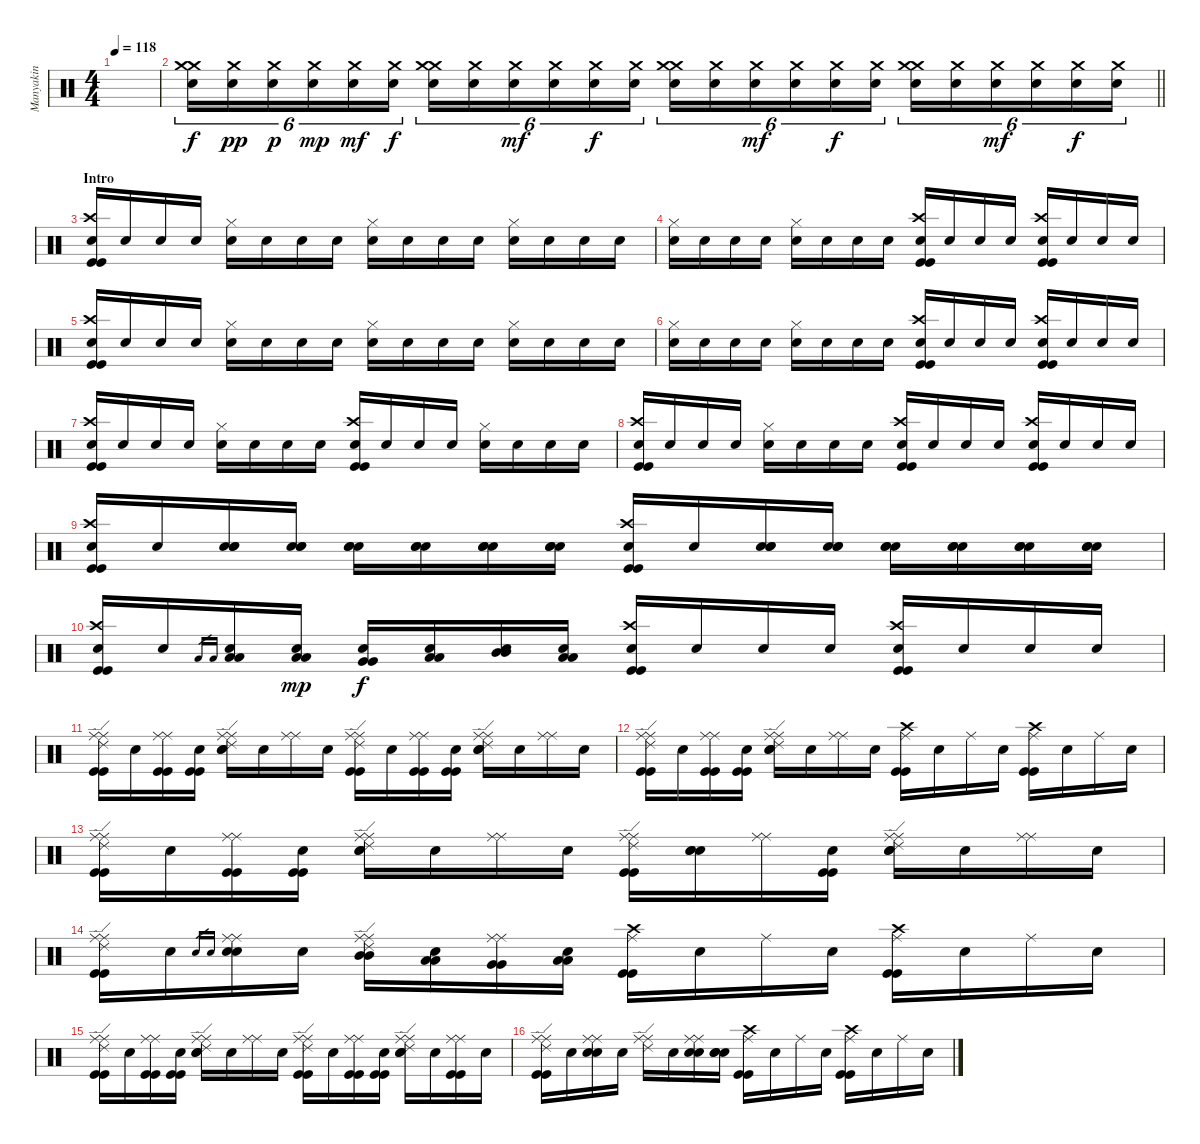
\track ("Manyakin" "Manyakin") {instrument percussion}
\staff {score}
\articulation defaults
\ts (4 4)
\tempo 118
\clef neutral
\ks c
|
\barLineRight lightlight
("Crash medium (hit)" "Crash medium (hit)" "Snare (hit)"{x}).16{tu (6 4)} ("Crash medium (hit)" "Snare (hit)"{x}).16{tu (6 4) dy pp} ("Crash medium (hit)" "Snare (hit)"{x}).16{tu (6 4) dy p} ("Crash medium (hit)" "Snare (hit)"{x}).16{tu (6 4) dy mp} ("Crash medium (hit)" "Snare (hit)"{x}).16{tu (6 4) dy mf} ("Crash medium (hit)" "Snare (hit)"{x}).16{tu (6 4) dy f} ("Crash medium (hit)" "Crash medium (hit)" "Snare (hit)"{x}).16{tu (6 4)} ("Crash medium (hit)" "Snare (hit)"{x}).16{tu (6 4)} ("Crash medium (hit)" "Snare (hit)"{x}).16{tu (6 4) dy mf} ("Crash medium (hit)" "Snare (hit)"{x}).16{tu (6 4)} ("Crash medium (hit)" "Snare (hit)"{x}).16{tu (6 4) dy f} ("Crash medium (hit)" "Snare (hit)"{x}).16{tu (6 4)} ("Crash medium (hit)" "Crash medium (hit)" "Snare (hit)"{x}).16{tu (6 4)} ("Crash medium (hit)" "Snare (hit)"{x}).16{tu (6 4)} ("Crash medium (hit)" "Snare (hit)"{x}).16{tu (6 4) dy mf} ("Crash medium (hit)" "Snare (hit)"{x}).16{tu (6 4)} ("Crash medium (hit)" "Snare (hit)"{x}).16{tu (6 4) dy f} ("Crash medium (hit)" "Snare (hit)"{x}).16{tu (6 4)} ("Crash medium (hit)" "Crash medium (hit)" "Snare (hit)"{x}).16{tu (6 4)} ("Crash medium (hit)" "Snare (hit)"{x}).16{tu (6 4)} ("Crash medium (hit)" "Snare (hit)"{x}).16{tu (6 4) dy mf} ("Crash medium (hit)" "Snare (hit)"{x}).16{tu (6 4)} ("Crash medium (hit)" "Snare (hit)"{x}).16{tu (6 4) dy f} ("Crash medium (hit)" "Snare (hit)"{x}).16{tu (6 4)} |
\section ("" "Intro")
("Crash high (hit)" "Kick (hit)" "Kick (hit)" "Snare (hit)"{x}).16 "Snare (hit)"{x}.16 "Snare (hit)"{x}.16 "Snare (hit)"{x}.16 ("Hi-Hat (closed)" "Snare (hit)"{x}).16 "Snare (hit)"{x}.16 "Snare (hit)"{x}.16 "Snare (hit)"{x}.16 ("Hi-Hat (closed)" "Snare (hit)"{x}).16 "Snare (hit)"{x}.16 "Snare (hit)"{x}.16 "Snare (hit)"{x}.16 ("Hi-Hat (closed)" "Snare (hit)"{x}).16 "Snare (hit)"{x}.16 "Snare (hit)"{x}.16 "Snare (hit)"{x}.16 |
("Hi-Hat (closed)" "Snare (hit)"{x}).16 "Snare (hit)"{x}.16 "Snare (hit)"{x}.16 "Snare (hit)"{x}.16 ("Hi-Hat (closed)" "Snare (hit)"{x}).16 "Snare (hit)"{x}.16 "Snare (hit)"{x}.16 "Snare (hit)"{x}.16 ("Crash high (hit)" "Kick (hit)" "Kick (hit)" "Snare (hit)"{x}).16 "Snare (hit)"{x}.16 "Snare (hit)"{x}.16 "Snare (hit)"{x}.16 ("Crash high (hit)" "Kick (hit)" "Kick (hit)" "Snare (hit)"{x}).16 "Snare (hit)"{x}.16 "Snare (hit)"{x}.16 "Snare (hit)"{x}.16 |
("Crash high (hit)" "Kick (hit)" "Kick (hit)" "Snare (hit)"{x}).16 "Snare (hit)"{x}.16 "Snare (hit)"{x}.16 "Snare (hit)"{x}.16 ("Hi-Hat (closed)" "Snare (hit)"{x}).16 "Snare (hit)"{x}.16 "Snare (hit)"{x}.16 "Snare (hit)"{x}.16 ("Hi-Hat (closed)" "Snare (hit)"{x}).16 "Snare (hit)"{x}.16 "Snare (hit)"{x}.16 "Snare (hit)"{x}.16 ("Hi-Hat (closed)" "Snare (hit)"{x}).16 "Snare (hit)"{x}.16 "Snare (hit)"{x}.16 "Snare (hit)"{x}.16 |
("Hi-Hat (closed)" "Snare (hit)"{x}).16 "Snare (hit)"{x}.16 "Snare (hit)"{x}.16 "Snare (hit)"{x}.16 ("Hi-Hat (closed)" "Snare (hit)"{x}).16 "Snare (hit)"{x}.16 "Snare (hit)"{x}.16 "Snare (hit)"{x}.16 ("Crash high (hit)" "Kick (hit)" "Kick (hit)" "Snare (hit)"{x}).16 "Snare (hit)"{x}.16 "Snare (hit)"{x}.16 "Snare (hit)"{x}.16 ("Crash high (hit)" "Kick (hit)" "Kick (hit)" "Snare (hit)"{x}).16 "Snare (hit)"{x}.16 "Snare (hit)"{x}.16 "Snare (hit)"{x}.16 |
("Crash high (hit)" "Kick (hit)" "Kick (hit)" "Snare (hit)"{x}).16 "Snare (hit)"{x}.16 "Snare (hit)"{x}.16 "Snare (hit)"{x}.16 ("Hi-Hat (closed)" "Snare (hit)"{x}).16 "Snare (hit)"{x}.16 "Snare (hit)"{x}.16 "Snare (hit)"{x}.16 ("Crash high (hit)" "Kick (hit)" "Kick (hit)" "Snare (hit)"{x}).16 "Snare (hit)"{x}.16 "Snare (hit)"{x}.16 "Snare (hit)"{x}.16 ("Hi-Hat (closed)" "Snare (hit)"{x}).16 "Snare (hit)"{x}.16 "Snare (hit)"{x}.16 "Snare (hit)"{x}.16 |
("Crash high (hit)" "Kick (hit)" "Kick (hit)" "Snare (hit)"{x}).16 "Snare (hit)"{x}.16 "Snare (hit)"{x}.16 "Snare (hit)"{x}.16 ("Hi-Hat (closed)" "Snare (hit)"{x}).16 "Snare (hit)"{x}.16 "Snare (hit)"{x}.16 "Snare (hit)"{x}.16 ("Crash high (hit)" "Kick (hit)" "Kick (hit)" "Snare (hit)"{x}).16 "Snare (hit)"{x}.16 "Snare (hit)"{x}.16 "Snare (hit)"{x}.16 ("Crash high (hit)" "Kick (hit)" "Kick (hit)" "Snare (hit)"{x}).16 "Snare (hit)"{x}.16 "Snare (hit)"{x}.16 "Snare (hit)"{x}.16 |
("Crash high (hit)" "Kick (hit)" "Kick (hit)" "Snare (hit)"{x}).16 "Snare (hit)"{x}.16 ("Electric Snare (hit)" "Electric Snare (hit)" "Snare (hit)"{x}).16 ("Electric Snare (hit)" "Electric Snare (hit)" "Snare (hit)"{x}).16 ("Electric Snare (hit)" "Electric Snare (hit)" "Snare (hit)"{x}).16 ("Electric Snare (hit)" "Electric Snare (hit)" "Snare (hit)"{x}).16 ("Electric Snare (hit)" "Electric Snare (hit)" "Snare (hit)"{x}).16 ("Electric Snare (hit)" "Electric Snare (hit)" "Snare (hit)"{x}).16 ("Crash high (hit)" "Kick (hit)" "Kick (hit)" "Snare (hit)"{x}).16 "Snare (hit)"{x}.16 ("Electric Snare (hit)" "Electric Snare (hit)" "Snare (hit)"{x}).16 ("Electric Snare (hit)" "Electric Snare (hit)" "Snare (hit)"{x}).16 ("Electric Snare (hit)" "Electric Snare (hit)" "Snare (hit)"{x}).16 ("Electric Snare (hit)" "Electric Snare (hit)" "Snare (hit)"{x}).16 ("Electric Snare (hit)" "Electric Snare (hit)" "Snare (hit)"{x}).16 ("Electric Snare (hit)" "Electric Snare (hit)" "Snare (hit)"{x}).16 |
("Crash high (hit)" "Kick (hit)" "Kick (hit)" "Snare (hit)"{x}).16 "Snare (hit)"{x}.16 "Low Floor Tom (hit)".16{gr} "Low Floor Tom (hit)".16{gr} ("Low Floor Tom (hit)" "Low Floor Tom (hit)" "Snare (hit)"{x}).16 ("Low Floor Tom (hit)" "Low Floor Tom (hit)" "Snare (hit)"{x}).16{dy mp} ("Very Low Tom (hit)" "Very Low Tom (hit)" "Snare (hit)"{x}).16{dy f} ("Low Tom (hit)" "Low Tom (hit)" "Snare (hit)"{x}).16 ("Mid Tom (hit)" "Mid Tom (hit)" "Snare (hit)"{x}).16 ("Low Tom (hit)" "Low Tom (hit)" "Snare (hit)"{x}).16 ("Crash high (hit)" "Kick (hit)" "Kick (hit)" "Snare (hit)"{x}).16 "Snare (hit)"{x}.16 "Snare (hit)"{x}.16 "Snare (hit)"{x}.16 ("Crash high (hit)" "Kick (hit)" "Kick (hit)" "Snare (hit)"{x}).16 "Snare (hit)"{x}.16 "Snare (hit)"{x}.16 "Snare (hit)"{x}.16 |
("Ride (middle)" "Ride (edge) 2" "Kick (hit)" "Kick (hit)" "Ride (middle)"{x}).16 "Snare (hit)"{x}.16 ("Ride (middle)" "Kick (hit)" "Kick (hit)" "Ride (middle)"{x}).16 ("Kick (hit)" "Kick (hit)" "Snare (hit)"{x}).16 ("Ride (middle)" "Ride (edge) 2" "Electric Snare (hit)" "Electric Snare (hit)" "Ride (middle)"{x}).16 "Snare (hit)"{x}.16 ("Ride (middle)" "Ride (middle)"{x}).16 "Snare (hit)"{x}.16 ("Ride (middle)" "Ride (edge) 2" "Kick (hit)" "Kick (hit)" "Ride (middle)"{x}).16 "Snare (hit)"{x}.16 ("Ride (middle)" "Kick (hit)" "Kick (hit)" "Ride (middle)"{x}).16 ("Kick (hit)" "Kick (hit)" "Snare (hit)"{x}).16 ("Ride (middle)" "Ride (edge) 2" "Electric Snare (hit)" "Electric Snare (hit)" "Ride (middle)"{x}).16 "Snare (hit)"{x}.16 ("Ride (middle)" "Ride (middle)"{x}).16 "Snare (hit)"{x}.16 |
("Ride (middle)" "Ride (edge) 2" "Kick (hit)" "Kick (hit)" "Ride (middle)"{x}).16 "Snare (hit)"{x}.16 ("Ride (middle)" "Kick (hit)" "Kick (hit)" "Ride (middle)"{x}).16 ("Kick (hit)" "Kick (hit)" "Snare (hit)"{x}).16 ("Ride (middle)" "Ride (edge) 2" "Electric Snare (hit)" "Electric Snare (hit)" "Ride (middle)"{x}).16 "Snare (hit)"{x}.16 ("Ride (middle)" "Ride (middle)"{x}).16 "Snare (hit)"{x}.16 ("Crash high (hit)" "Kick (hit)" "Kick (hit)" "Ride (middle)"{x}).16 "Snare (hit)"{x}.16 "Ride (middle)"{x}.16 "Snare (hit)"{x}.16 ("Crash high (hit)" "Kick (hit)" "Kick (hit)" "Ride (middle)"{x}).16 "Snare (hit)"{x}.16 "Ride (middle)"{x}.16 "Snare (hit)"{x}.16 |
("Ride (middle)" "Ride (edge) 2" "Kick (hit)" "Kick (hit)" "Ride (middle)"{x}).16 "Snare (hit)"{x}.16 ("Ride (middle)" "Kick (hit)" "Kick (hit)" "Ride (middle)"{x}).16 ("Kick (hit)" "Kick (hit)" "Snare (hit)"{x}).16 ("Ride (middle)" "Ride (edge) 2" "Electric Snare (hit)" "Electric Snare (hit)" "Ride (middle)"{x}).16 "Snare (hit)"{x}.16 ("Ride (middle)" "Ride (middle)"{x}).16 "Snare (hit)"{x}.16 ("Ride (middle)" "Ride (edge) 2" "Kick (hit)" "Kick (hit)" "Ride (middle)"{x}).16 ("Electric Snare (hit)" "Electric Snare (hit)" "Snare (hit)"{x}).16 ("Ride (middle)" "Ride (middle)"{x}).16 ("Kick (hit)" "Kick (hit)" "Snare (hit)"{x}).16 ("Ride (middle)" "Ride (edge) 2" "Electric Snare (hit)" "Electric Snare (hit)" "Ride (middle)"{x}).16 "Snare (hit)"{x}.16 ("Ride (middle)" "Ride (middle)"{x}).16 "Snare (hit)"{x}.16 |
("Ride (middle)" "Ride (edge) 2" "Kick (hit)" "Kick (hit)" "Ride (middle)"{x}).16 "Snare (hit)"{x}.16 "Electric Snare (hit)".16{gr} "Electric Snare (hit)".16{gr} ("Ride (middle)" "Electric Snare (hit)" "Electric Snare (hit)" "Ride (middle)"{x}).16 "Snare (hit)"{x}.16 ("Ride (middle)" "Ride (edge) 2" "Mid Tom (hit)" "Mid Tom (hit)" "Ride (middle)"{x}).16 ("Low Tom (hit)" "Low Tom (hit)" "Snare (hit)"{x}).16 ("Ride (middle)" "Very Low Tom (hit)" "Very Low Tom (hit)" "Ride (middle)"{x}).16 ("Low Floor Tom (hit)" "Low Floor Tom (hit)" "Snare (hit)"{x}).16 ("Crash high (hit)" "Kick (hit)" "Kick (hit)" "Ride (middle)"{x}).16 "Snare (hit)"{x}.16 "Ride (middle)"{x}.16 "Snare (hit)"{x}.16 ("Crash high (hit)" "Kick (hit)" "Kick (hit)" "Ride (middle)"{x}).16 "Snare (hit)"{x}.16 "Ride (middle)"{x}.16 "Snare (hit)"{x}.16 |
("Ride (middle)" "Ride (edge) 2" "Kick (hit)" "Kick (hit)" "Ride (middle)"{x}).16 "Snare (hit)"{x}.16 ("Ride (middle)" "Kick (hit)" "Kick (hit)" "Ride (middle)"{x}).16 ("Kick (hit)" "Kick (hit)" "Snare (hit)"{x}).16 ("Ride (middle)" "Ride (edge) 2" "Electric Snare (hit)" "Electric Snare (hit)" "Ride (middle)"{x}).16 "Snare (hit)"{x}.16 ("Ride (middle)" "Ride (middle)"{x}).16 "Snare (hit)"{x}.16 ("Ride (middle)" "Ride (edge) 2" "Kick (hit)" "Kick (hit)" "Ride (middle)"{x}).16 "Snare (hit)"{x}.16 ("Ride (middle)" "Kick (hit)" "Kick (hit)" "Ride (middle)"{x}).16 ("Kick (hit)" "Kick (hit)" "Snare (hit)"{x}).16 ("Ride (middle)" "Ride (edge) 2" "Electric Snare (hit)" "Electric Snare (hit)" "Ride (middle)"{x}).16 "Snare (hit)"{x}.16 ("Ride (middle)" "Kick (hit)" "Kick (hit)" "Ride (middle)"{x}).16 "Snare (hit)"{x}.16 |
("Ride (middle)" "Ride (edge) 2" "Kick (hit)" "Kick (hit)" "Ride (middle)"{x}).16 "Snare (hit)"{x}.16 ("Ride (middle)" "Electric Snare (hit)" "Electric Snare (hit)" "Ride (middle)"{x}).16 "Snare (hit)"{x}.16 ("Ride (middle)" "Ride (edge) 2" "Ride (middle)"{x}).16 "Snare (hit)"{x}.16 ("Ride (middle)" "Electric Snare (hit)" "Electric Snare (hit)" "Ride (middle)"{x}).16 ("Electric Snare (hit)" "Electric Snare (hit)" "Snare (hit)"{x}).16 ("Crash high (hit)" "Kick (hit)" "Kick (hit)" "Ride (middle)"{x}).16 "Snare (hit)"{x}.16 "Ride (middle)"{x}.16 "Snare (hit)"{x}.16 ("Crash high (hit)" "Kick (hit)" "Kick (hit)" "Ride (middle)"{x}).16 "Snare (hit)"{x}.16 "Ride (middle)"{x}.16 "Snare (hit)"{x}.16
